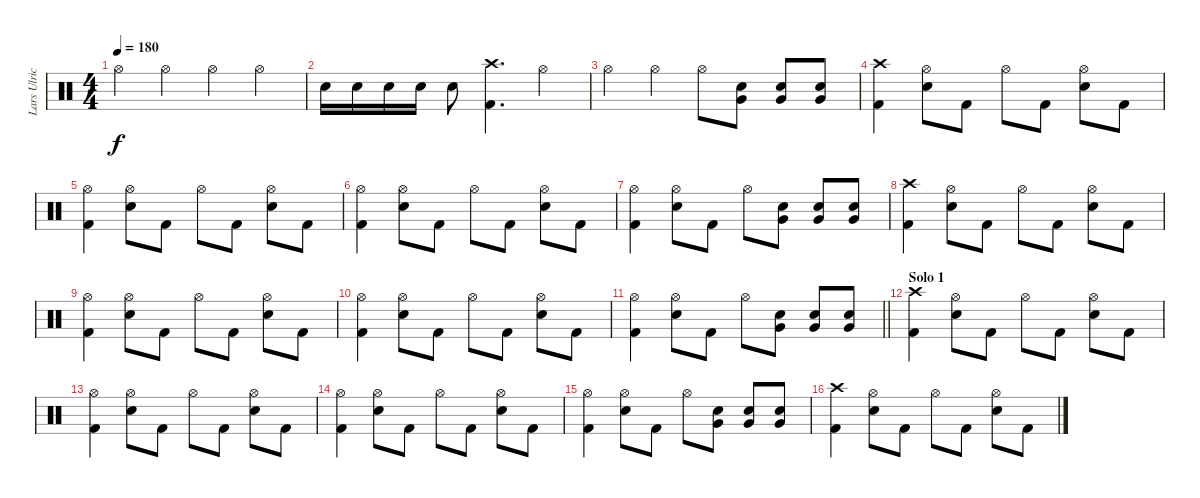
\track ("Lars Ulrich" "Lars Ulric") {instrument percussion}
\staff {score}
\articulation defaults
\ts (4 4)
\tempo 180
\clef neutral
\ks c "Hi-Hat (open)".4{dy f} "Hi-Hat (open)".4 "Hi-Hat (open)".4 "Hi-Hat (open)".4
|
"Electric Snare (hit)".16 "Electric Snare (hit)".16 "Electric Snare (hit)".16 "Electric Snare (hit)".16 "Electric Snare (hit)".8 ("Crash high (hit)" "Kick (hit) 2").4{d} "Hi-Hat (open)".4 |
"Hi-Hat (open)".4 "Hi-Hat (open)".4 "Hi-Hat (open)".8 ("Very Low Tom (hit)" "Electric Snare (hit)").8 ("Very Low Tom (hit)" "Electric Snare (hit)").8 ("Very Low Tom (hit)" "Electric Snare (hit)").8 |
("Crash high (hit)" "Kick (hit) 2").4 ("Hi-Hat (open)" "Electric Snare (hit)").8 "Kick (hit) 2".8 "Hi-Hat (open)".8 "Kick (hit) 2".8 ("Hi-Hat (open)" "Electric Snare (hit)").8 "Kick (hit) 2".8 |
("Hi-Hat (open)" "Kick (hit) 2").4 ("Hi-Hat (open)" "Electric Snare (hit)").8 "Kick (hit) 2".8 "Hi-Hat (open)".8 "Kick (hit) 2".8 ("Hi-Hat (open)" "Electric Snare (hit)").8 "Kick (hit) 2".8 |
("Hi-Hat (open)" "Kick (hit) 2").4 ("Hi-Hat (open)" "Electric Snare (hit)").8 "Kick (hit) 2".8 "Hi-Hat (open)".8 "Kick (hit) 2".8 ("Hi-Hat (open)" "Electric Snare (hit)").8 "Kick (hit) 2".8 |
("Hi-Hat (open)" "Kick (hit) 2").4 ("Hi-Hat (open)" "Electric Snare (hit)").8 "Kick (hit) 2".8 "Hi-Hat (open)".8 ("Very Low Tom (hit)" "Electric Snare (hit)").8 ("Very Low Tom (hit)" "Electric Snare (hit)").8 ("Very Low Tom (hit)" "Electric Snare (hit)").8 |
("Crash high (hit)" "Kick (hit) 2").4 ("Hi-Hat (open)" "Electric Snare (hit)").8 "Kick (hit) 2".8 "Hi-Hat (open)".8 "Kick (hit) 2".8 ("Hi-Hat (open)" "Electric Snare (hit)").8 "Kick (hit) 2".8 |
("Hi-Hat (open)" "Kick (hit) 2").4 ("Hi-Hat (open)" "Electric Snare (hit)").8 "Kick (hit) 2".8 "Hi-Hat (open)".8 "Kick (hit) 2".8 ("Hi-Hat (open)" "Electric Snare (hit)").8 "Kick (hit) 2".8 |
("Hi-Hat (open)" "Kick (hit) 2").4 ("Hi-Hat (open)" "Electric Snare (hit)").8 "Kick (hit) 2".8 "Hi-Hat (open)".8 "Kick (hit) 2".8 ("Hi-Hat (open)" "Electric Snare (hit)").8 "Kick (hit) 2".8 |
\barLineRight lightlight
("Hi-Hat (open)" "Kick (hit) 2").4 ("Hi-Hat (open)" "Electric Snare (hit)").8 "Kick (hit) 2".8 "Hi-Hat (open)".8 ("Very Low Tom (hit)" "Electric Snare (hit)").8 ("Very Low Tom (hit)" "Electric Snare (hit)").8 ("Very Low Tom (hit)" "Electric Snare (hit)").8 |
\section ("" "Solo 1")
("Crash high (hit)" "Kick (hit) 2").4 ("Hi-Hat (open)" "Electric Snare (hit)").8 "Kick (hit) 2".8 "Hi-Hat (open)".8 "Kick (hit) 2".8 ("Hi-Hat (open)" "Electric Snare (hit)").8 "Kick (hit) 2".8 |
("Hi-Hat (open)" "Kick (hit) 2").4 ("Hi-Hat (open)" "Electric Snare (hit)").8 "Kick (hit) 2".8 "Hi-Hat (open)".8 "Kick (hit) 2".8 ("Hi-Hat (open)" "Electric Snare (hit)").8 "Kick (hit) 2".8 |
("Hi-Hat (open)" "Kick (hit) 2").4 ("Hi-Hat (open)" "Electric Snare (hit)").8 "Kick (hit) 2".8 "Hi-Hat (open)".8 "Kick (hit) 2".8 ("Hi-Hat (open)" "Electric Snare (hit)").8 "Kick (hit) 2".8 |
("Hi-Hat (open)" "Kick (hit) 2").4 ("Hi-Hat (open)" "Electric Snare (hit)").8 "Kick (hit) 2".8 "Hi-Hat (open)".8 ("Very Low Tom (hit)" "Electric Snare (hit)").8 ("Very Low Tom (hit)" "Electric Snare (hit)").8 ("Very Low Tom (hit)" "Electric Snare (hit)").8 |
("Crash high (hit)" "Kick (hit) 2").4 ("Hi-Hat (open)" "Electric Snare (hit)").8 "Kick (hit) 2".8 "Hi-Hat (open)".8 "Kick (hit) 2".8 ("Hi-Hat (open)" "Electric Snare (hit)").8 "Kick (hit) 2".8
